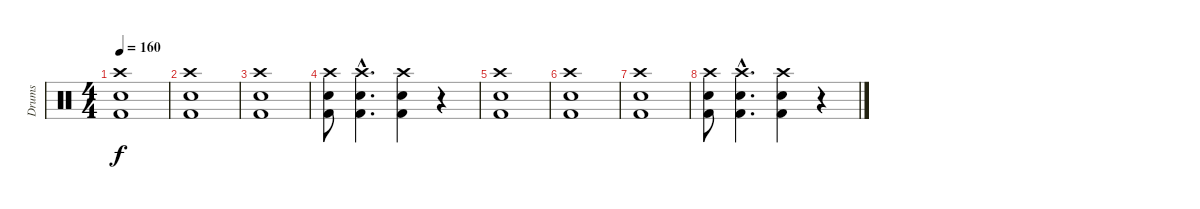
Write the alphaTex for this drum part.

\track ("Drums" "Drums") {instrument percussion}
\staff {score}
\articulation defaults
\ts (4 4)
\tempo 160
\clef neutral
\ks c
("Crash high (hit)" "Kick (hit) 2" "Snare (hit) 2").1{dy f} |
("Kick (hit) 2" "Snare (hit) 2" "Crash high (hit)").1 |
("Crash high (hit)" "Snare (hit) 2" "Kick (hit) 2").1 |
("Crash high (hit)" "Snare (hit) 2" "Kick (hit) 2").8 ("Crash high (hit)"{hac} "Snare (hit) 2"{hac} "Kick (hit) 2"{hac}).4{d} ("Snare (hit) 2" "Crash high (hit)" "Kick (hit) 2").4 r.4 |
("Crash high (hit)" "Kick (hit) 2" "Snare (hit) 2").1 |
("Kick (hit) 2" "Snare (hit) 2" "Crash high (hit)").1 |
("Crash high (hit)" "Snare (hit) 2" "Kick (hit) 2").1 |
("Crash high (hit)" "Snare (hit) 2" "Kick (hit) 2").8 ("Crash high (hit)"{hac} "Snare (hit) 2"{hac} "Kick (hit) 2"{hac}).4{d} ("Snare (hit) 2" "Crash high (hit)" "Kick (hit) 2").4 r.4
